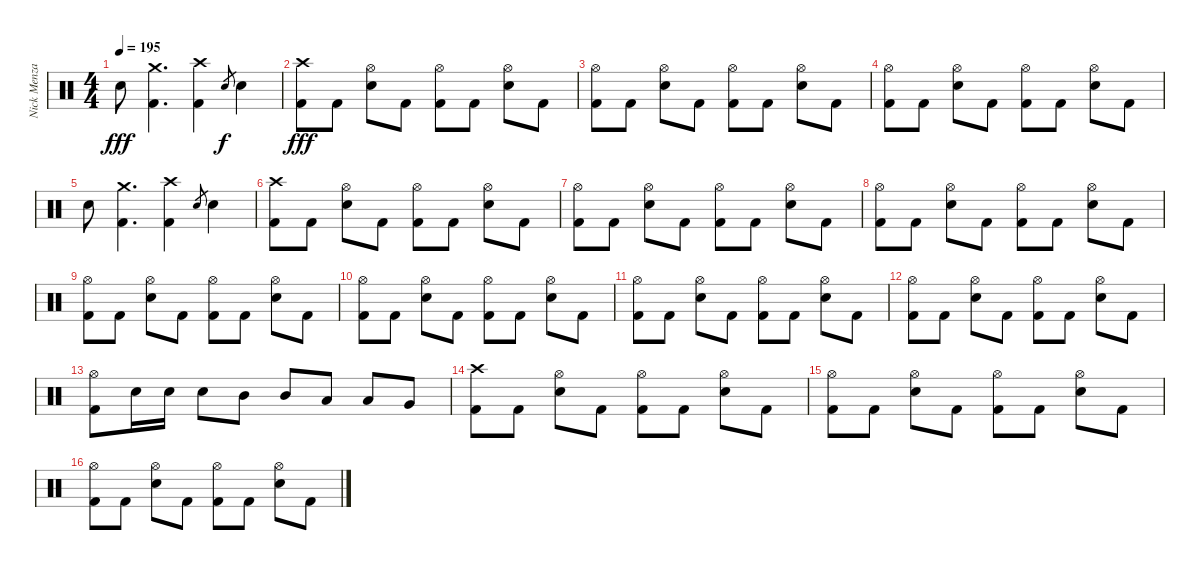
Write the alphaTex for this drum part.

\track ("Nick Menza (Drums)" "Nick Menza") {instrument percussion}
\staff {score}
\articulation defaults
\ts (4 4)
\tempo 195
\clef neutral
\ks c "Electric Snare (hit)".8{dy fff}
("Kick (hit) 2" "Crash medium (hit)").4{d} ("Kick (hit) 2" "Crash high (hit)").4 "Electric Snare (hit)".8{gr dy f} "Electric Snare (hit)".4 |
("Kick (hit) 2" "Crash high (hit)").8{dy fff} "Kick (hit) 2".8 ("Electric Snare (hit)" "Hi-Hat (open)").8 "Kick (hit) 2".8 ("Kick (hit) 2" "Hi-Hat (open)").8 "Kick (hit) 2".8 ("Electric Snare (hit)" "Hi-Hat (open)").8 "Kick (hit) 2".8 |
("Kick (hit) 2" "Hi-Hat (open)").8 "Kick (hit) 2".8 ("Electric Snare (hit)" "Hi-Hat (open)").8 "Kick (hit) 2".8 ("Kick (hit) 2" "Hi-Hat (open)").8 "Kick (hit) 2".8 ("Electric Snare (hit)" "Hi-Hat (open)").8 "Kick (hit) 2".8 |
("Kick (hit) 2" "Hi-Hat (open)").8 "Kick (hit) 2".8 ("Electric Snare (hit)" "Hi-Hat (open)").8 "Kick (hit) 2".8 ("Kick (hit) 2" "Hi-Hat (open)").8 "Kick (hit) 2".8 ("Electric Snare (hit)" "Hi-Hat (open)").8 "Kick (hit) 2".8 |
"Electric Snare (hit)".8 ("Kick (hit) 2" "Crash medium (hit)").4{d} ("Kick (hit) 2" "Crash high (hit)").4 "Electric Snare (hit)".8{gr} "Electric Snare (hit)".4 |
("Kick (hit) 2" "Crash high (hit)").8 "Kick (hit) 2".8 ("Electric Snare (hit)" "Hi-Hat (open)").8 "Kick (hit) 2".8 ("Kick (hit) 2" "Hi-Hat (open)").8 "Kick (hit) 2".8 ("Electric Snare (hit)" "Hi-Hat (open)").8 "Kick (hit) 2".8 |
("Kick (hit) 2" "Hi-Hat (open)").8 "Kick (hit) 2".8 ("Electric Snare (hit)" "Hi-Hat (open)").8 "Kick (hit) 2".8 ("Kick (hit) 2" "Hi-Hat (open)").8 "Kick (hit) 2".8 ("Electric Snare (hit)" "Hi-Hat (open)").8 "Kick (hit) 2".8 |
("Kick (hit) 2" "Hi-Hat (open)").8 "Kick (hit) 2".8 ("Electric Snare (hit)" "Hi-Hat (open)").8 "Kick (hit) 2".8 ("Kick (hit) 2" "Hi-Hat (open)").8 "Kick (hit) 2".8 ("Electric Snare (hit)" "Hi-Hat (open)").8 "Kick (hit) 2".8 |
("Kick (hit) 2" "Hi-Hat (open)").8 "Kick (hit) 2".8 ("Electric Snare (hit)" "Hi-Hat (open)").8 "Kick (hit) 2".8 ("Kick (hit) 2" "Hi-Hat (open)").8 "Kick (hit) 2".8 ("Electric Snare (hit)" "Hi-Hat (open)").8 "Kick (hit) 2".8 |
("Kick (hit) 2" "Hi-Hat (open)").8 "Kick (hit) 2".8 ("Electric Snare (hit)" "Hi-Hat (open)").8 "Kick (hit) 2".8 ("Kick (hit) 2" "Hi-Hat (open)").8 "Kick (hit) 2".8 ("Electric Snare (hit)" "Hi-Hat (open)").8 "Kick (hit) 2".8 |
("Kick (hit) 2" "Hi-Hat (open)").8 "Kick (hit) 2".8 ("Electric Snare (hit)" "Hi-Hat (open)").8 "Kick (hit) 2".8 ("Kick (hit) 2" "Hi-Hat (open)").8 "Kick (hit) 2".8 ("Electric Snare (hit)" "Hi-Hat (open)").8 "Kick (hit) 2".8 |
("Kick (hit) 2" "Hi-Hat (open)").8 "Kick (hit) 2".8 ("Electric Snare (hit)" "Hi-Hat (open)").8 "Kick (hit) 2".8 ("Kick (hit) 2" "Hi-Hat (open)").8 "Kick (hit) 2".8 ("Electric Snare (hit)" "Hi-Hat (open)").8 "Kick (hit) 2".8 |
("Kick (hit) 2" "Hi-Hat (open)").8 "Electric Snare (hit)".16 "Electric Snare (hit)".16 "Electric Snare (hit)".8 "Mid Tom (hit)".8 "Mid Tom (hit)".8 "Low Tom (hit)".8 "Low Tom (hit)".8 "Very Low Tom (hit)".8 |
("Kick (hit) 2" "Crash high (hit)").8 "Kick (hit) 2".8 ("Electric Snare (hit)" "Hi-Hat (open)").8 "Kick (hit) 2".8 ("Kick (hit) 2" "Hi-Hat (open)").8 "Kick (hit) 2".8 ("Electric Snare (hit)" "Hi-Hat (open)").8 "Kick (hit) 2".8 |
("Kick (hit) 2" "Hi-Hat (open)").8 "Kick (hit) 2".8 ("Electric Snare (hit)" "Hi-Hat (open)").8 "Kick (hit) 2".8 ("Kick (hit) 2" "Hi-Hat (open)").8 "Kick (hit) 2".8 ("Electric Snare (hit)" "Hi-Hat (open)").8 "Kick (hit) 2".8 |
("Kick (hit) 2" "Hi-Hat (open)").8 "Kick (hit) 2".8 ("Electric Snare (hit)" "Hi-Hat (open)").8 "Kick (hit) 2".8 ("Kick (hit) 2" "Hi-Hat (open)").8 "Kick (hit) 2".8 ("Electric Snare (hit)" "Hi-Hat (open)").8 "Kick (hit) 2".8
